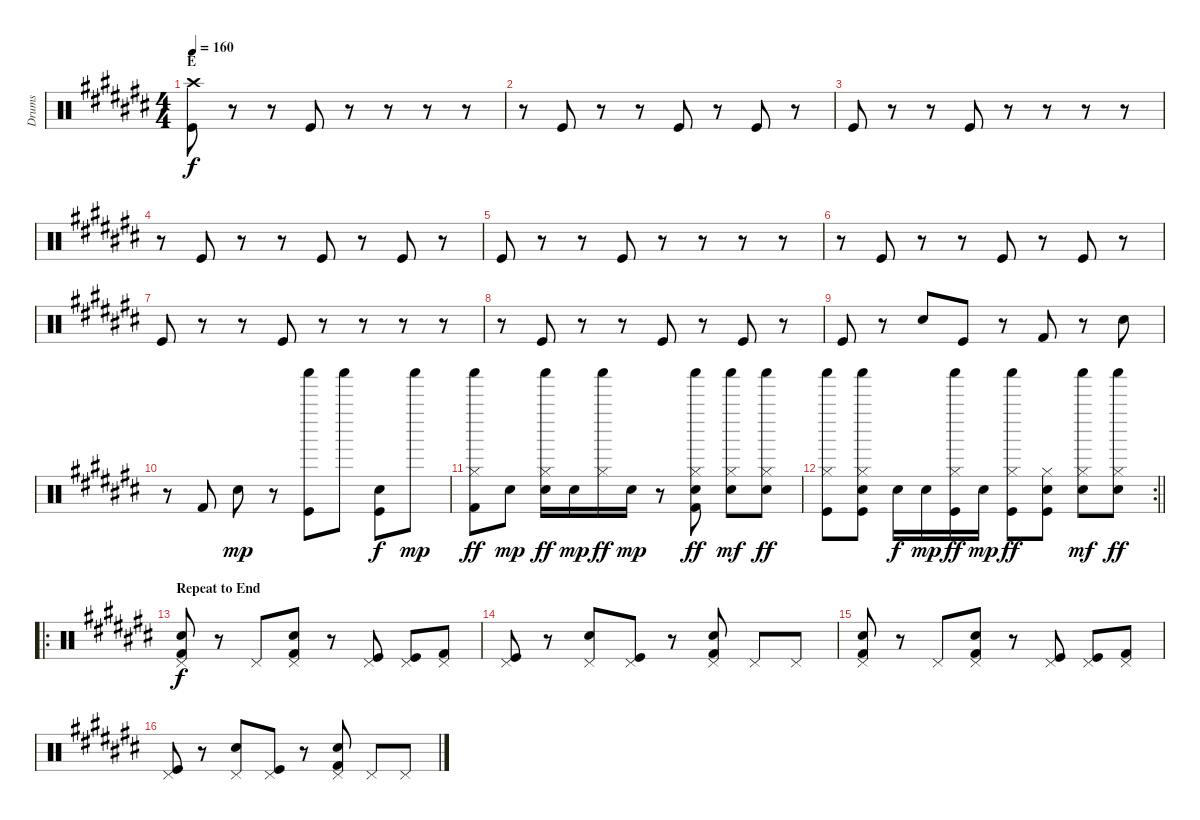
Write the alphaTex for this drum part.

\track ("Drums" "Drums") {instrument percussion}
\staff {score}
\articulation defaults
\ts (4 4)
\section ("" "E")
\tempo 160
\clef neutral
\ks c#
("Crash high (hit)" "Kick (hit)").8{dy f} r.8 r.8 "Kick (hit)".8 r.8 r.8 r.8 r.8 |
r.8 "Kick (hit)".8 r.8 r.8 "Kick (hit)".8 r.8 "Kick (hit)".8 r.8 |
"Kick (hit)".8 r.8 r.8 "Kick (hit)".8 r.8 r.8 r.8 r.8 |
r.8 "Kick (hit)".8 r.8 r.8 "Kick (hit)".8 r.8 "Kick (hit)".8 r.8 |
"Kick (hit)".8 r.8 r.8 "Kick (hit)".8 r.8 r.8 r.8 r.8 |
r.8 "Kick (hit)".8 r.8 r.8 "Kick (hit)".8 r.8 "Kick (hit)".8 r.8 |
"Kick (hit)".8 r.8 r.8 "Kick (hit)".8 r.8 r.8 r.8 r.8 |
r.8 "Kick (hit)".8 r.8 r.8 "Kick (hit)".8 r.8 "Kick (hit)".8 r.8 |
"Kick (hit)".8 r.8 "Electric Snare (hit)".8 "Kick (hit)".8 r.8 "Kick (hit) 2".8 r.8 "Electric Snare (hit)".8 |
r.8 "Kick (hit) 2".8 "Electric Snare (hit)".8{dy mp} r.8 ("Shaker (hit)" "Kick (hit)").8 "Shaker (hit)".8 ("Electric Snare (hit)" "Kick (hit)").8{dy f} "Shaker (hit)".8{dy mp} |
("Shaker (hit)" "Hi-Hat (closed)" "Kick (hit) 2").8{dy ff} "Electric Snare (hit)".8{dy mp} ("Shaker (hit)" "Hi-Hat (closed)" "Electric Snare (hit)").16{dy ff} "Electric Snare (hit)".16{dy mp} ("Shaker (hit)" "Hi-Hat (closed)").16{dy ff} "Electric Snare (hit)".16{dy mp} r.8 ("Shaker (hit)" "Hi-Hat (closed)" "Electric Snare (hit)" "Kick (hit) 2").8{dy ff} ("Shaker (hit)" "Hi-Hat (closed)" "Electric Snare (hit)").8{dy mf} ("Shaker (hit)" "Hi-Hat (closed)" "Electric Snare (hit)").8{dy ff} |
\rc 2
\barLineRight lightlight
("Shaker (hit)" "Hi-Hat (closed)" "Kick (hit)").8 ("Shaker (hit)" "Hi-Hat (closed)" "Electric Snare (hit)" "Kick (hit)").8 "Electric Snare (hit)".16{dy f} "Electric Snare (hit)".16{dy mp} ("Shaker (hit)" "Hi-Hat (closed)" "Kick (hit)").16{dy ff} "Electric Snare (hit)".16{dy mp} ("Shaker (hit)" "Hi-Hat (closed)" "Kick (hit)").8{dy ff} ("Hi-Hat (closed)" "Electric Snare (hit)" "Kick (hit)").8 ("Shaker (hit)" "Hi-Hat (closed)" "Electric Snare (hit)").8{dy mf} ("Shaker (hit)" "Hi-Hat (closed)" "Electric Snare (hit)").8{dy ff} |
\ro
\section ("" "Repeat to End")
("Pedal Hi-Hat (hit)" "Electric Snare (hit)" "Kick (hit) 2").8{dy f} r.8 "Pedal Hi-Hat (hit)".8 ("Pedal Hi-Hat (hit)" "Electric Snare (hit)" "Kick (hit) 2").8 r.8 ("Pedal Hi-Hat (hit)" "Kick (hit)").8 ("Pedal Hi-Hat (hit)" "Kick (hit)").8 ("Pedal Hi-Hat (hit)" "Kick (hit) 2").8 |
("Pedal Hi-Hat (hit)" "Kick (hit)").8 r.8 ("Pedal Hi-Hat (hit)" "Electric Snare (hit)").8 ("Pedal Hi-Hat (hit)" "Kick (hit)").8 r.8 ("Pedal Hi-Hat (hit)" "Electric Snare (hit)" "Kick (hit) 2").8 "Pedal Hi-Hat (hit)".8 "Pedal Hi-Hat (hit)".8 |
("Pedal Hi-Hat (hit)" "Electric Snare (hit)" "Kick (hit) 2").8 r.8 "Pedal Hi-Hat (hit)".8 ("Pedal Hi-Hat (hit)" "Electric Snare (hit)" "Kick (hit) 2").8 r.8 ("Pedal Hi-Hat (hit)" "Kick (hit)").8 ("Pedal Hi-Hat (hit)" "Kick (hit)").8 ("Pedal Hi-Hat (hit)" "Kick (hit) 2").8 |
("Pedal Hi-Hat (hit)" "Kick (hit)").8 r.8 ("Pedal Hi-Hat (hit)" "Electric Snare (hit)").8 ("Pedal Hi-Hat (hit)" "Kick (hit)").8 r.8 ("Pedal Hi-Hat (hit)" "Electric Snare (hit)" "Kick (hit) 2").8 "Pedal Hi-Hat (hit)".8 "Pedal Hi-Hat (hit)".8
